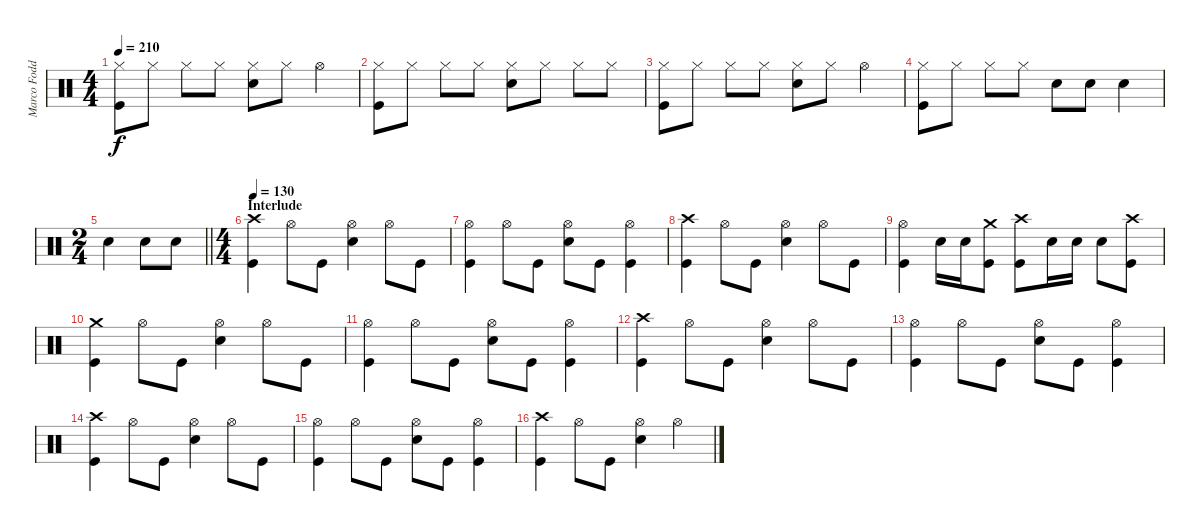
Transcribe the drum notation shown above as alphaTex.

\track ("Marco Foddis" "Marco Fodd") {instrument percussion}
\staff {score}
\articulation defaults
\ts (4 4)
\tempo 210
\clef neutral
\ks c
("Hi-Hat (closed)" "Kick (hit)").8{dy f} "Hi-Hat (closed)".8 "Hi-Hat (closed)".8 "Hi-Hat (closed)".8 ("Hi-Hat (closed)" "Snare (hit) 2").8 "Hi-Hat (closed)".8 "Hi-Hat (open)".4 |
("Hi-Hat (closed)" "Kick (hit)").8 "Hi-Hat (closed)".8 "Hi-Hat (closed)".8 "Hi-Hat (closed)".8 ("Hi-Hat (closed)" "Snare (hit) 2").8 "Hi-Hat (closed)".8 "Hi-Hat (closed)".8 "Hi-Hat (closed)".8 |
("Hi-Hat (closed)" "Kick (hit)").8 "Hi-Hat (closed)".8 "Hi-Hat (closed)".8 "Hi-Hat (closed)".8 ("Hi-Hat (closed)" "Snare (hit) 2").8 "Hi-Hat (closed)".8 "Hi-Hat (open)".4 |
("Hi-Hat (closed)" "Kick (hit)").8 "Hi-Hat (closed)".8 "Hi-Hat (closed)".8 "Hi-Hat (closed)".8 "Snare (hit) 2".8 "Snare (hit) 2".8 "Snare (hit) 2".4 |
\ts (2 4)
\barLineRight lightlight "Snare (hit) 2".4 "Snare (hit) 2".8 "Snare (hit) 2".8
|
\ts (4 4)
\section ("" "Interlude")
\tempo 130
("Crash high (hit)" "Kick (hit)").4 "Hi-Hat (open)".8 "Kick (hit)".8 ("Hi-Hat (open)" "Snare (hit) 2").4 "Hi-Hat (open)".8 "Kick (hit)".8 |
("Hi-Hat (open)" "Kick (hit)").4 "Hi-Hat (open)".8 "Kick (hit)".8 ("Hi-Hat (open)" "Snare (hit) 2").8 "Kick (hit)".8 ("Hi-Hat (open)" "Kick (hit)").4 |
("Crash high (hit)" "Kick (hit)").4 "Hi-Hat (open)".8 "Kick (hit)".8 ("Hi-Hat (open)" "Snare (hit) 2").4 "Hi-Hat (open)".8 "Kick (hit)".8 |
("Hi-Hat (open)" "Kick (hit)").4 "Snare (hit) 2".16 "Snare (hit) 2".16 ("Crash medium (hit)" "Kick (hit)").8 ("Crash high (hit)" "Kick (hit)").8 "Snare (hit) 2".16 "Snare (hit) 2".16 "Snare (hit) 2".8 ("Crash high (hit)" "Kick (hit)").8 |
("Crash medium (hit)" "Kick (hit)").4 "Hi-Hat (open)".8 "Kick (hit)".8 ("Hi-Hat (open)" "Snare (hit) 2").4 "Hi-Hat (open)".8 "Kick (hit)".8 |
("Hi-Hat (open)" "Kick (hit)").4 "Hi-Hat (open)".8 "Kick (hit)".8 ("Hi-Hat (open)" "Snare (hit) 2").8 "Kick (hit)".8 ("Hi-Hat (open)" "Kick (hit)").4 |
("Crash high (hit)" "Kick (hit)").4 "Hi-Hat (open)".8 "Kick (hit)".8 ("Hi-Hat (open)" "Snare (hit) 2").4 "Hi-Hat (open)".8 "Kick (hit)".8 |
("Hi-Hat (open)" "Kick (hit)").4 "Hi-Hat (open)".8 "Kick (hit)".8 ("Hi-Hat (open)" "Snare (hit) 2").8 "Kick (hit)".8 ("Hi-Hat (open)" "Kick (hit)").4 |
("Crash high (hit)" "Kick (hit)").4 "Hi-Hat (open)".8 "Kick (hit)".8 ("Hi-Hat (open)" "Snare (hit) 2").4 "Hi-Hat (open)".8 "Kick (hit)".8 |
("Hi-Hat (open)" "Kick (hit)").4 "Hi-Hat (open)".8 "Kick (hit)".8 ("Hi-Hat (open)" "Snare (hit) 2").8 "Kick (hit)".8 ("Hi-Hat (open)" "Kick (hit)").4 |
("Crash high (hit)" "Kick (hit)").4 "Hi-Hat (open)".8 "Kick (hit)".8 ("Hi-Hat (open)" "Snare (hit) 2").4 "Hi-Hat (open)".4
